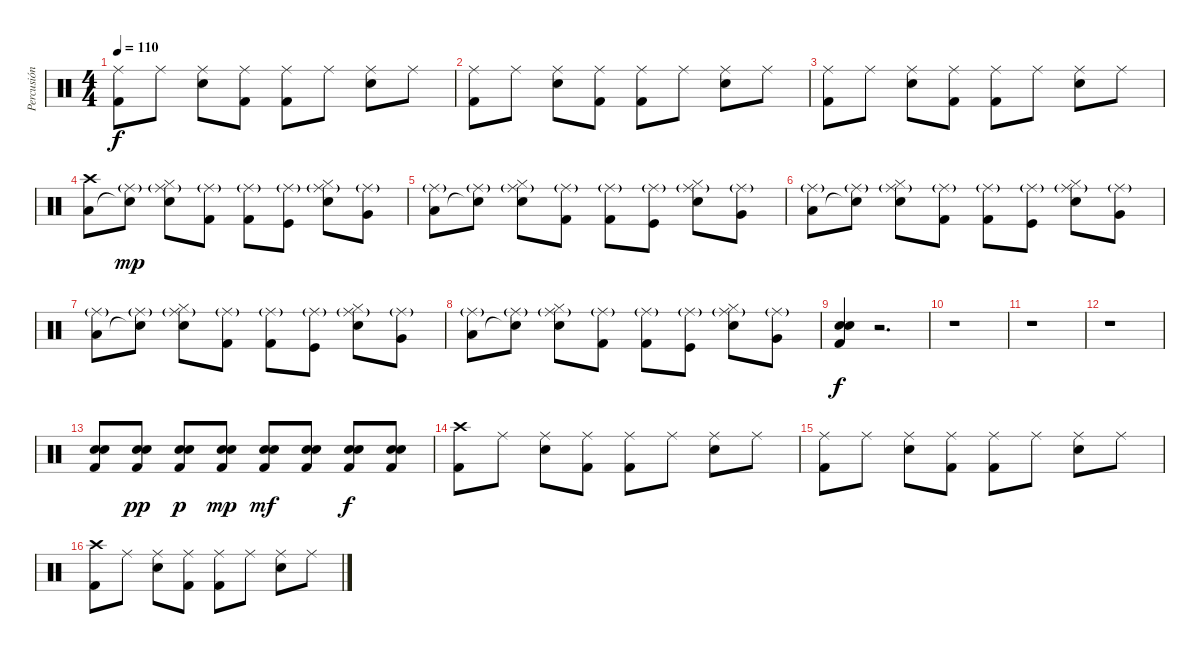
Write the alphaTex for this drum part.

\track ("Percusión" "Percusión") {instrument percussion}
\staff {score}
\articulation defaults
\ts (4 4)
\tempo 110
\clef neutral
\ks c
("Ride (middle)" "Kick (hit) 2").8{dy f} "Ride (middle)".8 ("Ride (middle)" "Snare (hit) 2").8 ("Ride (middle)" "Kick (hit) 2").8 ("Ride (middle)" "Kick (hit) 2").8 "Ride (middle)".8 ("Ride (middle)" "Snare (hit) 2").8 "Ride (middle)".8 |
("Ride (middle)" "Kick (hit) 2").8 "Ride (middle)".8 ("Ride (middle)" "Snare (hit) 2").8 ("Ride (middle)" "Kick (hit) 2").8 ("Ride (middle)" "Kick (hit) 2").8 "Ride (middle)".8 ("Ride (middle)" "Snare (hit) 2").8 "Ride (middle)".8 |
("Ride (middle)" "Kick (hit) 2").8 "Ride (middle)".8 ("Ride (middle)" "Snare (hit) 2").8 ("Ride (middle)" "Kick (hit) 2").8 ("Ride (middle)" "Kick (hit) 2").8 "Ride (middle)".8 ("Ride (middle)" "Snare (hit) 2").8 "Ride (middle)".8 |
("Low Floor Tom (hit)" "Crash high (hit)").8 ("Snare (hit)"{t} "Ride (middle)"{g}).8{dy mp} ("Snare (hit) 2" "Hi-Hat (closed)" "Ride (middle)"{g}).8 ("Kick (hit) 2" "Ride (middle)"{g}).8 ("Kick (hit) 2" "Ride (middle)"{g}).8 ("Kick (hit)" "Ride (middle)"{g}).8 ("Snare (hit) 2" "Hi-Hat (closed)" "Ride (middle)"{g}).8 ("Very Low Tom (hit)" "Ride (middle)"{g}).8 |
("Low Floor Tom (hit)" "Ride (middle)"{g}).8 ("Snare (hit)"{t} "Ride (middle)"{g}).8 ("Snare (hit) 2" "Hi-Hat (closed)" "Ride (middle)"{g}).8 ("Kick (hit) 2" "Ride (middle)"{g}).8 ("Kick (hit) 2" "Ride (middle)"{g}).8 ("Kick (hit)" "Ride (middle)"{g}).8 ("Snare (hit) 2" "Hi-Hat (closed)" "Ride (middle)"{g}).8 ("Very Low Tom (hit)" "Ride (middle)"{g}).8 |
("Low Floor Tom (hit)" "Ride (middle)"{g}).8 ("Snare (hit)"{t} "Ride (middle)"{g}).8 ("Snare (hit) 2" "Hi-Hat (closed)" "Ride (middle)"{g}).8 ("Kick (hit) 2" "Ride (middle)"{g}).8 ("Kick (hit) 2" "Ride (middle)"{g}).8 ("Kick (hit)" "Ride (middle)"{g}).8 ("Snare (hit) 2" "Hi-Hat (closed)" "Ride (middle)"{g}).8 ("Very Low Tom (hit)" "Ride (middle)"{g}).8 |
("Low Floor Tom (hit)" "Ride (middle)"{g}).8 ("Snare (hit)"{t} "Ride (middle)"{g}).8 ("Snare (hit) 2" "Hi-Hat (closed)" "Ride (middle)"{g}).8 ("Kick (hit) 2" "Ride (middle)"{g}).8 ("Kick (hit) 2" "Ride (middle)"{g}).8 ("Kick (hit)" "Ride (middle)"{g}).8 ("Snare (hit) 2" "Hi-Hat (closed)" "Ride (middle)"{g}).8 ("Very Low Tom (hit)" "Ride (middle)"{g}).8 |
("Low Floor Tom (hit)" "Ride (middle)"{g}).8 ("Snare (hit)"{t} "Ride (middle)"{g}).8 ("Snare (hit) 2" "Hi-Hat (closed)" "Ride (middle)"{g}).8 ("Kick (hit) 2" "Ride (middle)"{g}).8 ("Kick (hit) 2" "Ride (middle)"{g}).8 ("Kick (hit)" "Ride (middle)"{g}).8 ("Snare (hit) 2" "Hi-Hat (closed)" "Ride (middle)"{g}).8 ("Very Low Tom (hit)" "Ride (middle)"{g}).8 |
("Snare (hit) 2" "Snare (hit) 2" "Kick (hit) 2").4{dy f} r.2{d} |
r.1 |
r.1 |
r.1 |
("Snare (hit) 2" "Snare (hit) 2" "Kick (hit) 2").8 ("Snare (hit) 2" "Snare (hit) 2" "Kick (hit) 2").8{dy pp} ("Snare (hit) 2" "Snare (hit) 2" "Kick (hit) 2").8{dy p} ("Snare (hit) 2" "Snare (hit) 2" "Kick (hit) 2").8{dy mp} ("Snare (hit) 2" "Snare (hit) 2" "Kick (hit) 2").8{dy mf} ("Snare (hit) 2" "Snare (hit) 2" "Kick (hit) 2").8 ("Snare (hit) 2" "Snare (hit) 2" "Kick (hit) 2").8{dy f} ("Snare (hit) 2" "Snare (hit) 2" "Kick (hit) 2").8 |
("Crash high (hit)" "Kick (hit) 2").8 "Ride (middle)".8 ("Ride (middle)" "Snare (hit) 2").8 ("Ride (middle)" "Kick (hit) 2").8 ("Ride (middle)" "Kick (hit) 2").8 "Ride (middle)".8 ("Ride (middle)" "Snare (hit) 2").8 "Ride (middle)".8 |
("Ride (middle)" "Kick (hit) 2").8 "Ride (middle)".8 ("Ride (middle)" "Snare (hit) 2").8 ("Ride (middle)" "Kick (hit) 2").8 ("Ride (middle)" "Kick (hit) 2").8 "Ride (middle)".8 ("Ride (middle)" "Snare (hit) 2").8 "Ride (middle)".8 |
("Crash high (hit)" "Kick (hit) 2").8 "Ride (middle)".8 ("Ride (middle)" "Snare (hit) 2").8 ("Ride (middle)" "Kick (hit) 2").8 ("Ride (middle)" "Kick (hit) 2").8 "Ride (middle)".8 ("Ride (middle)" "Snare (hit) 2").8 "Ride (middle)".8
